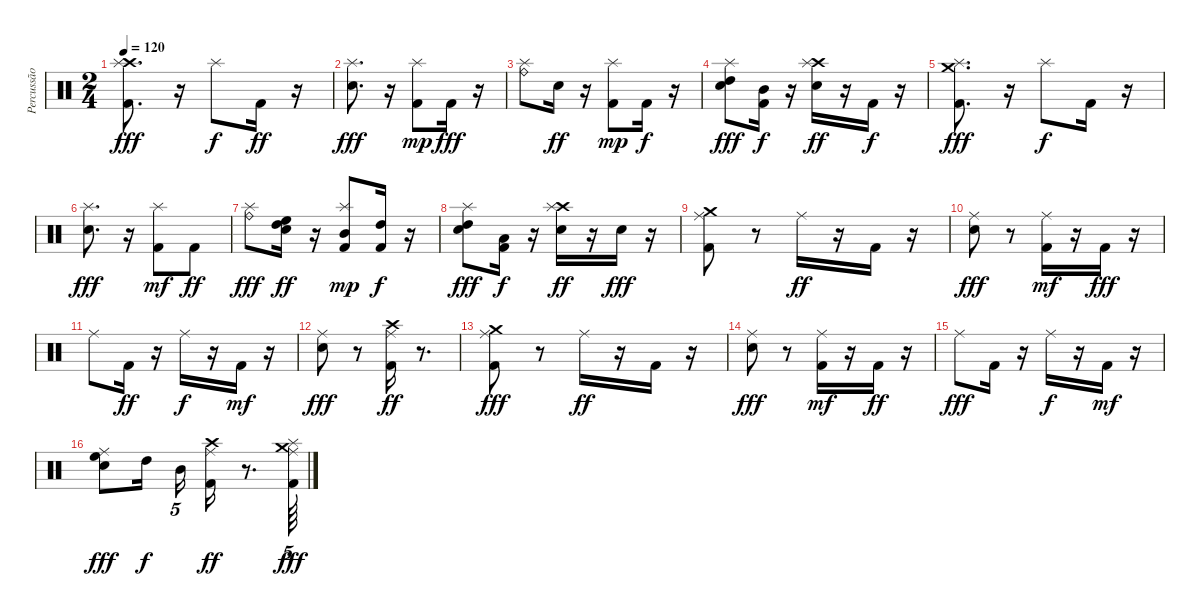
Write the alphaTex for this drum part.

\track ("Percussão" "Percussão") {instrument percussion}
\staff {score}
\articulation defaults
\ts (2 4)
\tempo 120
\clef neutral
\ks c
("Crash high (hit)" "Kick (hit) 2" "Splash (hit)").8{d dy fff} r.16 "Splash (hit)".8{dy f} "Kick (hit) 2".16{dy ff} r.16 |
("Snare (hit) 2" "Splash (hit)").8{d dy fff} r.16 ("Kick (hit) 2" "Splash (hit)").8{dy mp} "Kick (hit) 2".16{dy fff} r.16 |
("Splash (hit)" "Ride (bell)").8 "Snare (hit) 2".16{dy ff} r.16 ("Kick (hit) 2" "Splash (hit)").8{dy mp} "Kick (hit) 2".16{dy f} r.16 |
("Snare (hit) 2" "Splash (hit)" "High Tom (hit)").8{dy fff} ("Mid Tom (hit)" "Kick (hit) 2").16{dy f} r.16 ("Crash high (hit)" "Snare (hit) 2" "Splash (hit)").16{dy ff} r.16 "Kick (hit) 2".16{dy f} r.16 |
("Crash medium (hit)" "Kick (hit) 2" "Splash (hit)").8{d dy fff} r.16 "Splash (hit)".8{dy f} "Kick (hit) 2".16 r.16 |
("Snare (hit) 2" "Splash (hit)").8{d dy fff} r.16 ("Kick (hit) 2" "Splash (hit)").8{dy mf} "Kick (hit) 2".8{dy ff} |
("Ride (bell)" "Splash (hit)").8{dy fff} ("High Tom (hit)" "Snare (hit) 2" "High Floor Tom (hit)").16{dy ff} r.16 ("Kick (hit) 2" "Splash (hit)" "Mid Tom (hit)").8{dy mp} ("Kick (hit) 2" "High Tom (hit)").16{dy f} r.16 |
("High Tom (hit)" "Snare (hit) 2" "Splash (hit)").8{dy fff} ("Low Tom (hit)" "Kick (hit) 2").16{dy f} r.16 ("Crash high (hit)" "Snare (hit) 2" "Splash (hit)").16{dy ff} r.16 "Snare (hit) 2".16{dy fff} r.16 |
("Crash medium (hit)" "Kick (hit) 2" "Ride (middle)").8 r.8 "Ride (middle)".16{dy ff} r.16 "Kick (hit) 2".16 r.16 |
("Snare (hit) 2" "Ride (middle)").8{dy fff} r.8 ("Kick (hit) 2" "Ride (middle)").16{dy mf} r.16 "Kick (hit) 2".16{dy fff} r.16 |
"Ride (middle)".8 "Kick (hit) 2".16{dy ff} r.16 "Ride (middle)".16{dy f} r.16 "Kick (hit) 2".16{dy mf} r.16 |
("Snare (hit) 2" "Ride (middle)").8{dy fff} r.8 ("Crash high (hit)" "Kick (hit) 2" "Ride (middle)").16{dy ff} r.8{d} |
("Crash medium (hit)" "Kick (hit) 2" "Ride (middle)").8{dy fff} r.8 "Ride (middle)".16{dy ff} r.16 "Kick (hit) 2".16 r.16 |
("Snare (hit) 2" "Ride (middle)").8{dy fff} r.8 ("Kick (hit) 2" "Ride (middle)").16{dy mf} r.16 "Kick (hit) 2".16{dy ff} r.16 |
"Ride (middle)".8{dy fff} "Kick (hit) 2".16 r.16 "Ride (middle)".16{dy f} r.16 "Kick (hit) 2".16{dy mf} r.16 |
("High Floor Tom (hit)" "Snare (hit) 2" "Ride (middle)").8{dy fff} "High Tom (hit)".16{dy f beam splitsecondary} "Mid Tom (hit)".16{tu (5 4)} ("Crash high (hit)" "Kick (hit) 2" "Ride (middle)").16{dy ff} r.8{d} ("Kick (hit) 2" "Ride (middle)" "Splash (hit)" "Crash medium (hit)").64{tu (5 4) dy fff}
